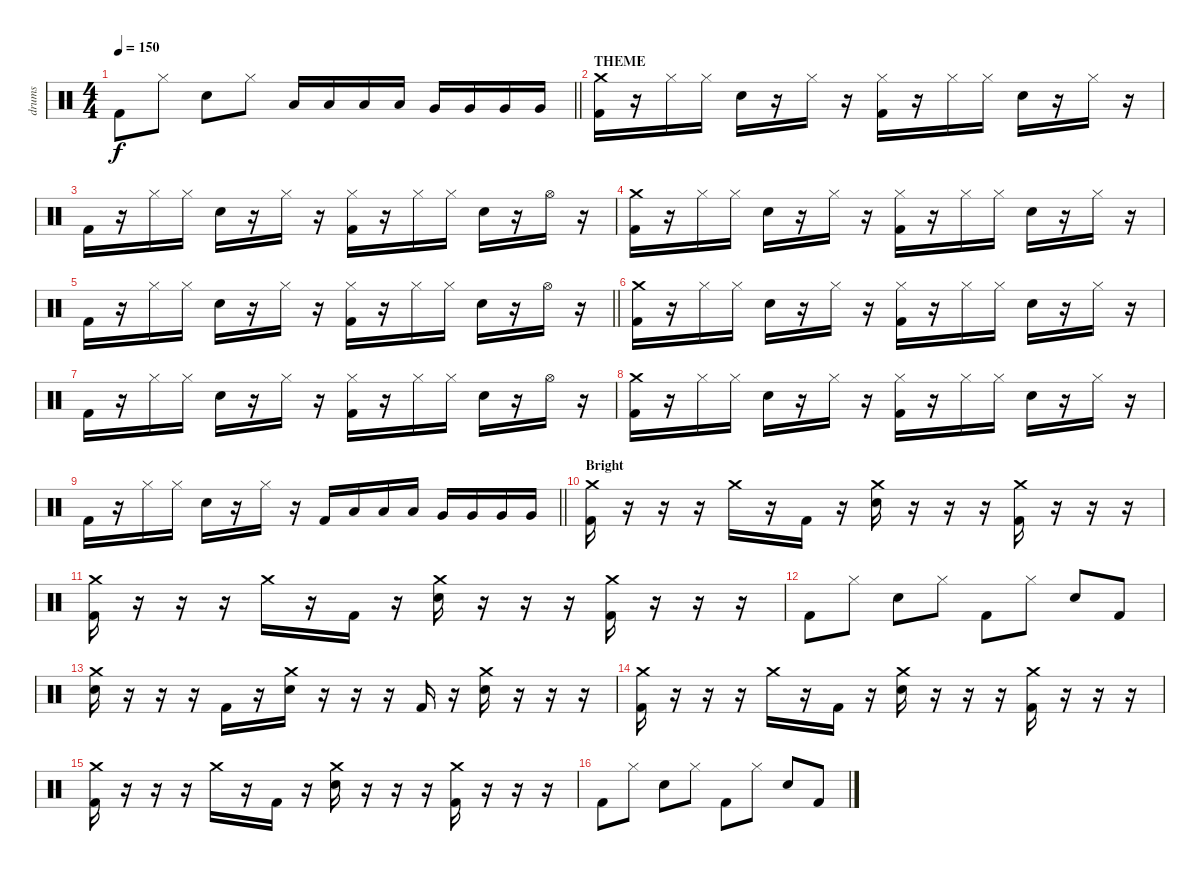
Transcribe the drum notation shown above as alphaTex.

\track ("drums" "drums") {instrument percussion}
\staff {score}
\articulation defaults
\ts (4 4)
\tempo 150
\clef neutral
\barLineRight lightlight
\ks c "Kick (hit) 2".8{dy f} "Hi-Hat (closed)".8 "Electric Snare (hit)".8 "Hi-Hat (closed)".8 "Low Floor Tom (hit)".16 "Low Floor Tom (hit)".16 "Low Floor Tom (hit)".16 "Low Floor Tom (hit)".16 "Very Low Tom (hit)".16 "Very Low Tom (hit)".16 "Very Low Tom (hit)".16 "Very Low Tom (hit)".16
|
\section ("" "THEME")
("Kick (hit) 2" "Crash medium (hit)").16 r.16 "Hi-Hat (closed)".16 "Hi-Hat (closed)".16 "Electric Snare (hit)".16 r.16 "Hi-Hat (closed)".16 r.16 ("Hi-Hat (closed)" "Kick (hit) 2").16 r.16 "Hi-Hat (closed)".16 "Hi-Hat (closed)".16 "Electric Snare (hit)".16 r.16 "Hi-Hat (closed)".16 r.16 |
"Kick (hit) 2".16 r.16 "Hi-Hat (closed)".16 "Hi-Hat (closed)".16 "Electric Snare (hit)".16 r.16 "Hi-Hat (closed)".16 r.16 ("Hi-Hat (closed)" "Kick (hit) 2").16 r.16 "Hi-Hat (closed)".16 "Hi-Hat (closed)".16 "Electric Snare (hit)".16 r.16 "Hi-Hat (open)".16 r.16 |
("Kick (hit) 2" "Crash medium (hit)").16 r.16 "Hi-Hat (closed)".16 "Hi-Hat (closed)".16 "Electric Snare (hit)".16 r.16 "Hi-Hat (closed)".16 r.16 ("Hi-Hat (closed)" "Kick (hit) 2").16 r.16 "Hi-Hat (closed)".16 "Hi-Hat (closed)".16 "Electric Snare (hit)".16 r.16 "Hi-Hat (closed)".16 r.16 |
\barLineRight lightlight "Kick (hit) 2".16
r.16 "Hi-Hat (closed)".16 "Hi-Hat (closed)".16 "Electric Snare (hit)".16 r.16 "Hi-Hat (closed)".16 r.16 ("Hi-Hat (closed)" "Kick (hit) 2").16 r.16 "Hi-Hat (closed)".16 "Hi-Hat (closed)".16 "Electric Snare (hit)".16 r.16 "Hi-Hat (open)".16 r.16 |
("Kick (hit) 2" "Crash medium (hit)").16 r.16 "Hi-Hat (closed)".16 "Hi-Hat (closed)".16 "Electric Snare (hit)".16 r.16 "Hi-Hat (closed)".16 r.16 ("Hi-Hat (closed)" "Kick (hit) 2").16 r.16 "Hi-Hat (closed)".16 "Hi-Hat (closed)".16 "Electric Snare (hit)".16 r.16 "Hi-Hat (closed)".16 r.16 |
"Kick (hit) 2".16 r.16 "Hi-Hat (closed)".16 "Hi-Hat (closed)".16 "Electric Snare (hit)".16 r.16 "Hi-Hat (closed)".16 r.16 ("Hi-Hat (closed)" "Kick (hit) 2").16 r.16 "Hi-Hat (closed)".16 "Hi-Hat (closed)".16 "Electric Snare (hit)".16 r.16 "Hi-Hat (open)".16 r.16 |
("Kick (hit) 2" "Crash medium (hit)").16 r.16 "Hi-Hat (closed)".16 "Hi-Hat (closed)".16 "Electric Snare (hit)".16 r.16 "Hi-Hat (closed)".16 r.16 ("Hi-Hat (closed)" "Kick (hit) 2").16 r.16 "Hi-Hat (closed)".16 "Hi-Hat (closed)".16 "Electric Snare (hit)".16 r.16 "Hi-Hat (closed)".16 r.16 |
\barLineRight lightlight "Kick (hit) 2".16
r.16 "Hi-Hat (closed)".16 "Hi-Hat (closed)".16 "Electric Snare (hit)".16 r.16 "Hi-Hat (closed)".16 r.16 "Kick (hit) 2".16 "Low Floor Tom (hit)".16 "Low Floor Tom (hit)".16 "Low Floor Tom (hit)".16 "Very Low Tom (hit)".16 "Very Low Tom (hit)".16 "Very Low Tom (hit)".16 "Very Low Tom (hit)".16 |
\section ("" "Bright")
("Kick (hit) 2" "Crash medium (hit)").16 r.16 r.16 r.16 "Crash medium (hit)".16 r.16 "Kick (hit) 2".16 r.16 ("Electric Snare (hit)" "Crash medium (hit)").16 r.16 r.16 r.16 ("Kick (hit) 2" "Crash medium (hit)").16 r.16 r.16 r.16 |
("Kick (hit) 2" "Crash medium (hit)").16 r.16 r.16 r.16 "Crash medium (hit)".16 r.16 "Kick (hit) 2".16 r.16 ("Electric Snare (hit)" "Crash medium (hit)").16 r.16 r.16 r.16 ("Kick (hit) 2" "Crash medium (hit)").16 r.16 r.16 r.16 |
"Kick (hit) 2".8 "Hi-Hat (closed)".8 "Electric Snare (hit)".8 "Hi-Hat (closed)".8 "Kick (hit) 2".8 "Hi-Hat (closed)".8 "Electric Snare (hit)".8 "Kick (hit) 2".8 |
("Electric Snare (hit)" "Crash medium (hit)").16 r.16 r.16 r.16 "Kick (hit) 2".16 r.16 ("Electric Snare (hit)" "Crash medium (hit)").16 r.16 r.16 r.16 "Kick (hit) 2".16 r.16 ("Electric Snare (hit)" "Crash medium (hit)").16 r.16 r.16 r.16 |
("Kick (hit) 2" "Crash medium (hit)").16 r.16 r.16 r.16 "Crash medium (hit)".16 r.16 "Kick (hit) 2".16 r.16 ("Electric Snare (hit)" "Crash medium (hit)").16 r.16 r.16 r.16 ("Kick (hit) 2" "Crash medium (hit)").16 r.16 r.16 r.16 |
("Kick (hit) 2" "Crash medium (hit)").16 r.16 r.16 r.16 "Crash medium (hit)".16 r.16 "Kick (hit) 2".16 r.16 ("Electric Snare (hit)" "Crash medium (hit)").16 r.16 r.16 r.16 ("Kick (hit) 2" "Crash medium (hit)").16 r.16 r.16 r.16 |
"Kick (hit) 2".8 "Hi-Hat (closed)".8 "Electric Snare (hit)".8 "Hi-Hat (closed)".8 "Kick (hit) 2".8 "Hi-Hat (closed)".8 "Electric Snare (hit)".8 "Kick (hit) 2".8
